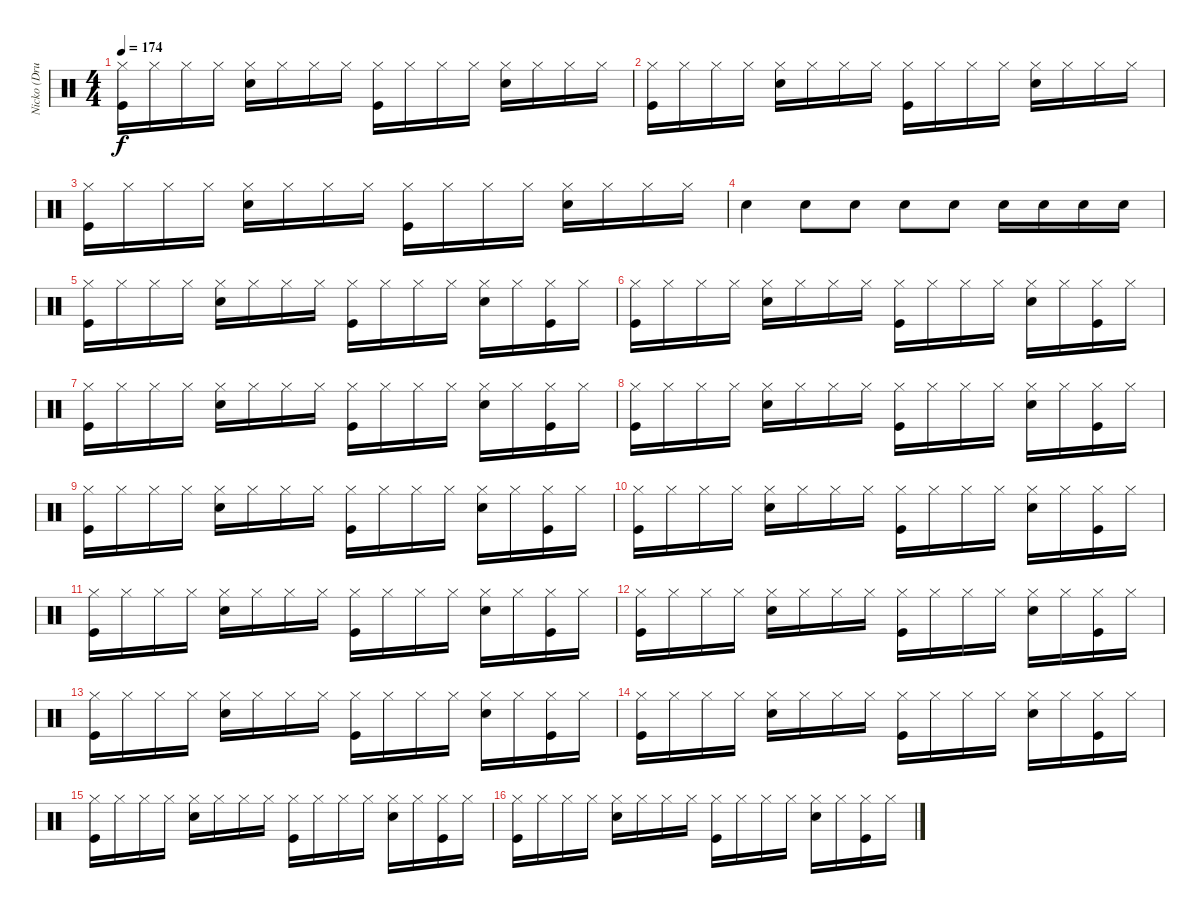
\track ("Nicko (Drums)" "Nicko (Dru") {instrument percussion}
\staff {score}
\articulation defaults
\ts (4 4)
\tempo 174
\clef neutral
\ks c
("Hi-Hat (closed)" "Kick (hit)").16{dy f} "Hi-Hat (closed)".16 "Hi-Hat (closed)".16 "Hi-Hat (closed)".16 ("Hi-Hat (closed)" "Electric Snare (hit)").16 "Hi-Hat (closed)".16 "Hi-Hat (closed)".16 "Hi-Hat (closed)".16 ("Hi-Hat (closed)" "Kick (hit)").16 "Hi-Hat (closed)".16 "Hi-Hat (closed)".16 "Hi-Hat (closed)".16 ("Hi-Hat (closed)" "Electric Snare (hit)").16 "Hi-Hat (closed)".16 "Hi-Hat (closed)".16 "Hi-Hat (closed)".16 |
("Hi-Hat (closed)" "Kick (hit)").16 "Hi-Hat (closed)".16 "Hi-Hat (closed)".16 "Hi-Hat (closed)".16 ("Hi-Hat (closed)" "Electric Snare (hit)").16 "Hi-Hat (closed)".16 "Hi-Hat (closed)".16 "Hi-Hat (closed)".16 ("Hi-Hat (closed)" "Kick (hit)").16 "Hi-Hat (closed)".16 "Hi-Hat (closed)".16 "Hi-Hat (closed)".16 ("Hi-Hat (closed)" "Electric Snare (hit)").16 "Hi-Hat (closed)".16 "Hi-Hat (closed)".16 "Hi-Hat (closed)".16 |
("Hi-Hat (closed)" "Kick (hit)").16 "Hi-Hat (closed)".16 "Hi-Hat (closed)".16 "Hi-Hat (closed)".16 ("Hi-Hat (closed)" "Electric Snare (hit)").16 "Hi-Hat (closed)".16 "Hi-Hat (closed)".16 "Hi-Hat (closed)".16 ("Hi-Hat (closed)" "Kick (hit)").16 "Hi-Hat (closed)".16 "Hi-Hat (closed)".16 "Hi-Hat (closed)".16 ("Hi-Hat (closed)" "Electric Snare (hit)").16 "Hi-Hat (closed)".16 "Hi-Hat (closed)".16 "Hi-Hat (closed)".16 |
"Snare (hit) 2".4 "Snare (hit) 2".8 "Snare (hit) 2".8 "Snare (hit) 2".8 "Snare (hit) 2".8 "Snare (hit) 2".16 "Snare (hit) 2".16 "Snare (hit) 2".16 "Snare (hit) 2".16 |
("Hi-Hat (closed)" "Kick (hit)").16 "Hi-Hat (closed)".16 "Hi-Hat (closed)".16 "Hi-Hat (closed)".16 ("Hi-Hat (closed)" "Electric Snare (hit)").16 "Hi-Hat (closed)".16 "Hi-Hat (closed)".16 "Hi-Hat (closed)".16 ("Hi-Hat (closed)" "Kick (hit)").16 "Hi-Hat (closed)".16 "Hi-Hat (closed)".16 "Hi-Hat (closed)".16 ("Hi-Hat (closed)" "Electric Snare (hit)").16 "Hi-Hat (closed)".16 ("Hi-Hat (closed)" "Kick (hit)").16 "Hi-Hat (closed)".16 |
("Hi-Hat (closed)" "Kick (hit)").16 "Hi-Hat (closed)".16 "Hi-Hat (closed)".16 "Hi-Hat (closed)".16 ("Hi-Hat (closed)" "Electric Snare (hit)").16 "Hi-Hat (closed)".16 "Hi-Hat (closed)".16 "Hi-Hat (closed)".16 ("Hi-Hat (closed)" "Kick (hit)").16 "Hi-Hat (closed)".16 "Hi-Hat (closed)".16 "Hi-Hat (closed)".16 ("Hi-Hat (closed)" "Electric Snare (hit)").16 "Hi-Hat (closed)".16 ("Hi-Hat (closed)" "Kick (hit)").16 "Hi-Hat (closed)".16 |
("Hi-Hat (closed)" "Kick (hit)").16 "Hi-Hat (closed)".16 "Hi-Hat (closed)".16 "Hi-Hat (closed)".16 ("Hi-Hat (closed)" "Electric Snare (hit)").16 "Hi-Hat (closed)".16 "Hi-Hat (closed)".16 "Hi-Hat (closed)".16 ("Hi-Hat (closed)" "Kick (hit)").16 "Hi-Hat (closed)".16 "Hi-Hat (closed)".16 "Hi-Hat (closed)".16 ("Hi-Hat (closed)" "Electric Snare (hit)").16 "Hi-Hat (closed)".16 ("Hi-Hat (closed)" "Kick (hit)").16 "Hi-Hat (closed)".16 |
("Hi-Hat (closed)" "Kick (hit)").16 "Hi-Hat (closed)".16 "Hi-Hat (closed)".16 "Hi-Hat (closed)".16 ("Hi-Hat (closed)" "Electric Snare (hit)").16 "Hi-Hat (closed)".16 "Hi-Hat (closed)".16 "Hi-Hat (closed)".16 ("Hi-Hat (closed)" "Kick (hit)").16 "Hi-Hat (closed)".16 "Hi-Hat (closed)".16 "Hi-Hat (closed)".16 ("Hi-Hat (closed)" "Electric Snare (hit)").16 "Hi-Hat (closed)".16 ("Hi-Hat (closed)" "Kick (hit)").16 "Hi-Hat (closed)".16 |
("Hi-Hat (closed)" "Kick (hit)").16 "Hi-Hat (closed)".16 "Hi-Hat (closed)".16 "Hi-Hat (closed)".16 ("Hi-Hat (closed)" "Electric Snare (hit)").16 "Hi-Hat (closed)".16 "Hi-Hat (closed)".16 "Hi-Hat (closed)".16 ("Hi-Hat (closed)" "Kick (hit)").16 "Hi-Hat (closed)".16 "Hi-Hat (closed)".16 "Hi-Hat (closed)".16 ("Hi-Hat (closed)" "Electric Snare (hit)").16 "Hi-Hat (closed)".16 ("Hi-Hat (closed)" "Kick (hit)").16 "Hi-Hat (closed)".16 |
("Hi-Hat (closed)" "Kick (hit)").16 "Hi-Hat (closed)".16 "Hi-Hat (closed)".16 "Hi-Hat (closed)".16 ("Hi-Hat (closed)" "Electric Snare (hit)").16 "Hi-Hat (closed)".16 "Hi-Hat (closed)".16 "Hi-Hat (closed)".16 ("Hi-Hat (closed)" "Kick (hit)").16 "Hi-Hat (closed)".16 "Hi-Hat (closed)".16 "Hi-Hat (closed)".16 ("Hi-Hat (closed)" "Electric Snare (hit)").16 "Hi-Hat (closed)".16 ("Hi-Hat (closed)" "Kick (hit)").16 "Hi-Hat (closed)".16 |
("Hi-Hat (closed)" "Kick (hit)").16 "Hi-Hat (closed)".16 "Hi-Hat (closed)".16 "Hi-Hat (closed)".16 ("Hi-Hat (closed)" "Electric Snare (hit)").16 "Hi-Hat (closed)".16 "Hi-Hat (closed)".16 "Hi-Hat (closed)".16 ("Hi-Hat (closed)" "Kick (hit)").16 "Hi-Hat (closed)".16 "Hi-Hat (closed)".16 "Hi-Hat (closed)".16 ("Hi-Hat (closed)" "Electric Snare (hit)").16 "Hi-Hat (closed)".16 ("Hi-Hat (closed)" "Kick (hit)").16 "Hi-Hat (closed)".16 |
("Hi-Hat (closed)" "Kick (hit)").16 "Hi-Hat (closed)".16 "Hi-Hat (closed)".16 "Hi-Hat (closed)".16 ("Hi-Hat (closed)" "Electric Snare (hit)").16 "Hi-Hat (closed)".16 "Hi-Hat (closed)".16 "Hi-Hat (closed)".16 ("Hi-Hat (closed)" "Kick (hit)").16 "Hi-Hat (closed)".16 "Hi-Hat (closed)".16 "Hi-Hat (closed)".16 ("Hi-Hat (closed)" "Electric Snare (hit)").16 "Hi-Hat (closed)".16 ("Hi-Hat (closed)" "Kick (hit)").16 "Hi-Hat (closed)".16 |
("Hi-Hat (closed)" "Kick (hit)").16 "Hi-Hat (closed)".16 "Hi-Hat (closed)".16 "Hi-Hat (closed)".16 ("Hi-Hat (closed)" "Electric Snare (hit)").16 "Hi-Hat (closed)".16 "Hi-Hat (closed)".16 "Hi-Hat (closed)".16 ("Hi-Hat (closed)" "Kick (hit)").16 "Hi-Hat (closed)".16 "Hi-Hat (closed)".16 "Hi-Hat (closed)".16 ("Hi-Hat (closed)" "Electric Snare (hit)").16 "Hi-Hat (closed)".16 ("Hi-Hat (closed)" "Kick (hit)").16 "Hi-Hat (closed)".16 |
("Hi-Hat (closed)" "Kick (hit)").16 "Hi-Hat (closed)".16 "Hi-Hat (closed)".16 "Hi-Hat (closed)".16 ("Hi-Hat (closed)" "Electric Snare (hit)").16 "Hi-Hat (closed)".16 "Hi-Hat (closed)".16 "Hi-Hat (closed)".16 ("Hi-Hat (closed)" "Kick (hit)").16 "Hi-Hat (closed)".16 "Hi-Hat (closed)".16 "Hi-Hat (closed)".16 ("Hi-Hat (closed)" "Electric Snare (hit)").16 "Hi-Hat (closed)".16 ("Hi-Hat (closed)" "Kick (hit)").16 "Hi-Hat (closed)".16 |
("Hi-Hat (closed)" "Kick (hit)").16 "Hi-Hat (closed)".16 "Hi-Hat (closed)".16 "Hi-Hat (closed)".16 ("Hi-Hat (closed)" "Electric Snare (hit)").16 "Hi-Hat (closed)".16 "Hi-Hat (closed)".16 "Hi-Hat (closed)".16 ("Hi-Hat (closed)" "Kick (hit)").16 "Hi-Hat (closed)".16 "Hi-Hat (closed)".16 "Hi-Hat (closed)".16 ("Hi-Hat (closed)" "Electric Snare (hit)").16 "Hi-Hat (closed)".16 ("Hi-Hat (closed)" "Kick (hit)").16 "Hi-Hat (closed)".16 |
("Hi-Hat (closed)" "Kick (hit)").16 "Hi-Hat (closed)".16 "Hi-Hat (closed)".16 "Hi-Hat (closed)".16 ("Hi-Hat (closed)" "Electric Snare (hit)").16 "Hi-Hat (closed)".16 "Hi-Hat (closed)".16 "Hi-Hat (closed)".16 ("Hi-Hat (closed)" "Kick (hit)").16 "Hi-Hat (closed)".16 "Hi-Hat (closed)".16 "Hi-Hat (closed)".16 ("Hi-Hat (closed)" "Electric Snare (hit)").16 "Hi-Hat (closed)".16 ("Hi-Hat (closed)" "Kick (hit)").16 "Hi-Hat (closed)".16
